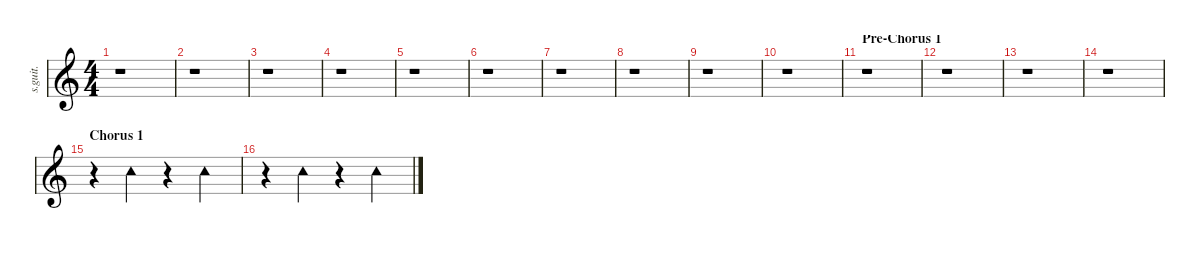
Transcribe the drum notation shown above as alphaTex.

\defaultSystemsLayout 4
\hideDynamics
\bracketExtendMode nobrackets
\track ("Studio" "s.guit.") {instrument percussion}
\staff {score}
\articulation defaults
\ts (4 4)
\tempo (149 hide)
\clef g2
\ks c
r.1{dy mp} |
r.1 |
r.1 |
r.1 |
r.1 |
r.1 |
r.1 |
r.1 |
r.1 |
r.1 |
\section ("" "Pre-Chorus 1")
r.1 |
r.1 |
r.1 |
r.1 |
\section ("" "Chorus 1")
r.4 "Tambourine (hit)".4{lyrics (0 "") lyrics (1 "") lyrics (2 "") lyrics (3 "") lyrics (4 "")} r.4 "Tambourine (hit)".4{lyrics (0 "") lyrics (1 "") lyrics (2 "") lyrics (3 "") lyrics (4 "")} |
r.4 "Tambourine (hit)".4{lyrics (0 "") lyrics (1 "") lyrics (2 "") lyrics (3 "") lyrics (4 "")} r.4 "Tambourine (hit)".4{lyrics (0 "") lyrics (1 "") lyrics (2 "") lyrics (3 "") lyrics (4 "")}
